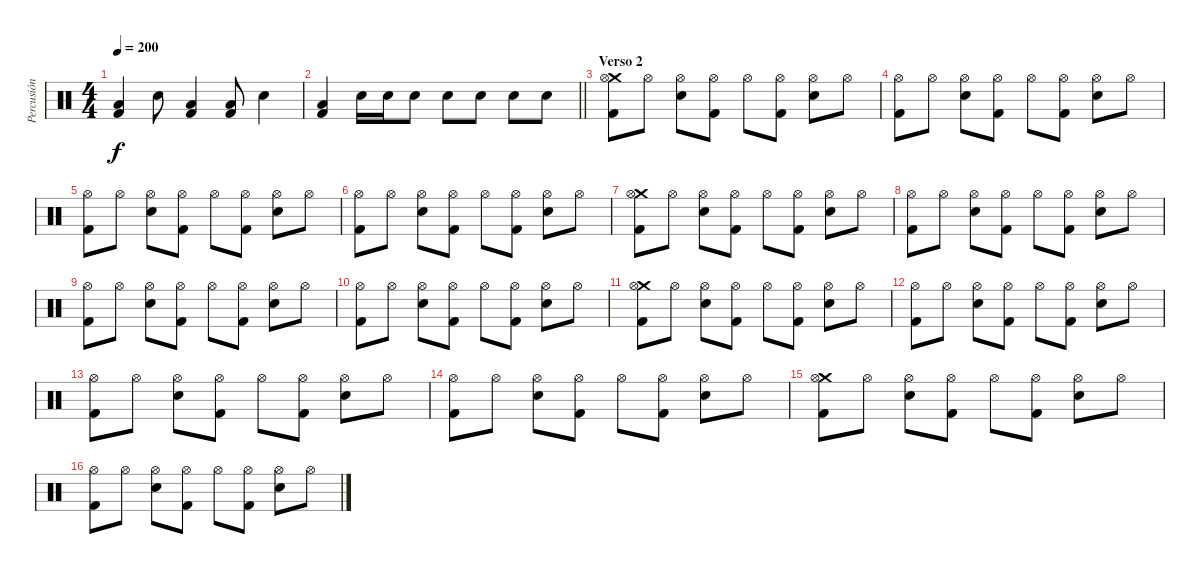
\track ("Percusión" "Percusión") {instrument percussion}
\staff {score}
\articulation defaults
\ts (4 4)
\tempo 200
\clef neutral
\ks c
("Low Floor Tom (hit)" "Kick (hit) 2").4{dy f} "Snare (hit) 2".8 ("Low Floor Tom (hit)" "Kick (hit) 2").4 ("Low Floor Tom (hit)" "Kick (hit) 2").8 "Snare (hit) 2".4 |
\barLineRight lightlight
("Low Floor Tom (hit)" "Kick (hit) 2").4 "Snare (hit) 2".16 "Snare (hit) 2".16 "Snare (hit) 2".8 "Snare (hit) 2".8 "Snare (hit) 2".8 "Snare (hit) 2".8 "Snare (hit) 2".8 |
\section ("" "Verso 2")
("Crash medium (hit)" "Hi-Hat (open)" "Kick (hit) 2").8 "Hi-Hat (open)".8 ("Hi-Hat (open)" "Snare (hit) 2").8 ("Hi-Hat (open)" "Kick (hit) 2").8 "Hi-Hat (open)".8 ("Hi-Hat (open)" "Kick (hit) 2").8 ("Hi-Hat (open)" "Snare (hit) 2").8 "Hi-Hat (open)".8 |
("Hi-Hat (open)" "Kick (hit) 2").8 "Hi-Hat (open)".8 ("Hi-Hat (open)" "Snare (hit) 2").8 ("Hi-Hat (open)" "Kick (hit) 2").8 "Hi-Hat (open)".8 ("Hi-Hat (open)" "Kick (hit) 2").8 ("Hi-Hat (open)" "Snare (hit) 2").8 "Hi-Hat (open)".8 |
("Hi-Hat (open)" "Kick (hit) 2").8 "Hi-Hat (open)".8 ("Hi-Hat (open)" "Snare (hit) 2").8 ("Hi-Hat (open)" "Kick (hit) 2").8 "Hi-Hat (open)".8 ("Hi-Hat (open)" "Kick (hit) 2").8 ("Hi-Hat (open)" "Snare (hit) 2").8 "Hi-Hat (open)".8 |
("Hi-Hat (open)" "Kick (hit) 2").8 "Hi-Hat (open)".8 ("Hi-Hat (open)" "Snare (hit) 2").8 ("Hi-Hat (open)" "Kick (hit) 2").8 "Hi-Hat (open)".8 ("Hi-Hat (open)" "Kick (hit) 2").8 ("Hi-Hat (open)" "Snare (hit) 2").8 "Hi-Hat (open)".8 |
("Crash medium (hit)" "Hi-Hat (open)" "Kick (hit) 2").8 "Hi-Hat (open)".8 ("Hi-Hat (open)" "Snare (hit) 2").8 ("Hi-Hat (open)" "Kick (hit) 2").8 "Hi-Hat (open)".8 ("Hi-Hat (open)" "Kick (hit) 2").8 ("Hi-Hat (open)" "Snare (hit) 2").8 "Hi-Hat (open)".8 |
("Hi-Hat (open)" "Kick (hit) 2").8 "Hi-Hat (open)".8 ("Hi-Hat (open)" "Snare (hit) 2").8 ("Hi-Hat (open)" "Kick (hit) 2").8 "Hi-Hat (open)".8 ("Hi-Hat (open)" "Kick (hit) 2").8 ("Hi-Hat (open)" "Snare (hit) 2").8 "Hi-Hat (open)".8 |
("Hi-Hat (open)" "Kick (hit) 2").8 "Hi-Hat (open)".8 ("Hi-Hat (open)" "Snare (hit) 2").8 ("Hi-Hat (open)" "Kick (hit) 2").8 "Hi-Hat (open)".8 ("Hi-Hat (open)" "Kick (hit) 2").8 ("Hi-Hat (open)" "Snare (hit) 2").8 "Hi-Hat (open)".8 |
("Hi-Hat (open)" "Kick (hit) 2").8 "Hi-Hat (open)".8 ("Hi-Hat (open)" "Snare (hit) 2").8 ("Hi-Hat (open)" "Kick (hit) 2").8 "Hi-Hat (open)".8 ("Hi-Hat (open)" "Kick (hit) 2").8 ("Hi-Hat (open)" "Snare (hit) 2").8 "Hi-Hat (open)".8 |
("Crash medium (hit)" "Hi-Hat (open)" "Kick (hit) 2").8 "Hi-Hat (open)".8 ("Hi-Hat (open)" "Snare (hit) 2").8 ("Hi-Hat (open)" "Kick (hit) 2").8 "Hi-Hat (open)".8 ("Hi-Hat (open)" "Kick (hit) 2").8 ("Hi-Hat (open)" "Snare (hit) 2").8 "Hi-Hat (open)".8 |
("Hi-Hat (open)" "Kick (hit) 2").8 "Hi-Hat (open)".8 ("Hi-Hat (open)" "Snare (hit) 2").8 ("Hi-Hat (open)" "Kick (hit) 2").8 "Hi-Hat (open)".8 ("Hi-Hat (open)" "Kick (hit) 2").8 ("Hi-Hat (open)" "Snare (hit) 2").8 "Hi-Hat (open)".8 |
("Hi-Hat (open)" "Kick (hit) 2").8 "Hi-Hat (open)".8 ("Hi-Hat (open)" "Snare (hit) 2").8 ("Hi-Hat (open)" "Kick (hit) 2").8 "Hi-Hat (open)".8 ("Hi-Hat (open)" "Kick (hit) 2").8 ("Hi-Hat (open)" "Snare (hit) 2").8 "Hi-Hat (open)".8 |
("Hi-Hat (open)" "Kick (hit) 2").8 "Hi-Hat (open)".8 ("Hi-Hat (open)" "Snare (hit) 2").8 ("Hi-Hat (open)" "Kick (hit) 2").8 "Hi-Hat (open)".8 ("Hi-Hat (open)" "Kick (hit) 2").8 ("Hi-Hat (open)" "Snare (hit) 2").8 "Hi-Hat (open)".8 |
("Crash medium (hit)" "Hi-Hat (open)" "Kick (hit) 2").8 "Hi-Hat (open)".8 ("Hi-Hat (open)" "Snare (hit) 2").8 ("Hi-Hat (open)" "Kick (hit) 2").8 "Hi-Hat (open)".8 ("Hi-Hat (open)" "Kick (hit) 2").8 ("Hi-Hat (open)" "Snare (hit) 2").8 "Hi-Hat (open)".8 |
("Hi-Hat (open)" "Kick (hit) 2").8 "Hi-Hat (open)".8 ("Hi-Hat (open)" "Snare (hit) 2").8 ("Hi-Hat (open)" "Kick (hit) 2").8 "Hi-Hat (open)".8 ("Hi-Hat (open)" "Kick (hit) 2").8 ("Hi-Hat (open)" "Snare (hit) 2").8 "Hi-Hat (open)".8
